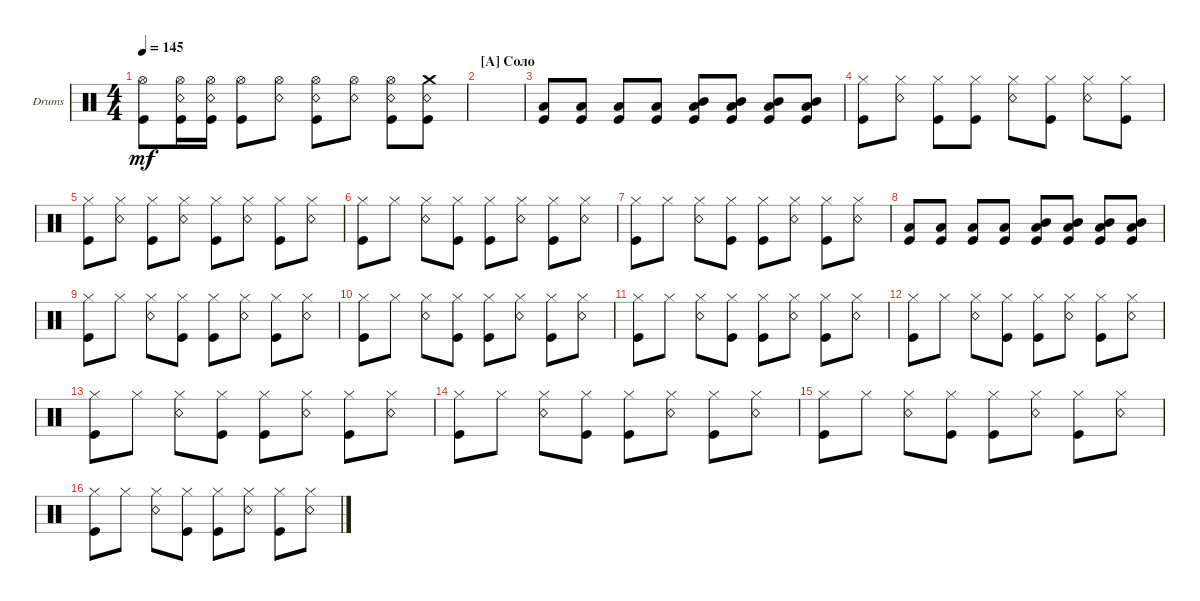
\defaultSystemsLayout 4
\bracketExtendMode groupsimilarinstruments
\firstSystemTrackNameOrientation horizontal
\otherSystemsTrackNameOrientation horizontal
\track ("Drumkit" "Drums") {instrument percussion}
\staff {score}
\articulation defaults
\ts (4 4)
\tempo 145
\clef neutral
\ks c
("Kick (hit)" "Hi-Hat (open)").8{dy mf} ("Snare (rim shot)" "Hi-Hat (open)" "Kick (hit)").16 ("Snare (rim shot)" "Hi-Hat (open)" "Kick (hit)").16 ("Kick (hit)" "Hi-Hat (open)").8 ("Snare (rim shot)" "Hi-Hat (open)").8 ("Kick (hit)" "Snare (rim shot)" "Hi-Hat (open)").8 ("Snare (rim shot)" "Hi-Hat (open)").8 ("Kick (hit)" "Snare (rim shot)" "Hi-Hat (open)").8 ("Snare (rim shot)" "Crash medium (hit)" "Kick (hit)").8 |
\section ("A" "Соло")
|
("Kick (hit)" "Low Tom (hit)").8 ("Kick (hit)" "Low Tom (hit)").8 ("Kick (hit)" "Low Tom (hit)").8 ("Kick (hit)" "Low Tom (hit)").8 ("Kick (hit)" "Low Tom (hit)" "Mid Tom (hit)").8 ("Kick (hit)" "Low Tom (hit)" "Mid Tom (hit)").8 ("Kick (hit)" "Low Tom (hit)" "Mid Tom (hit)").8 ("Kick (hit)" "Low Tom (hit)" "Mid Tom (hit)").8 |
("Kick (hit)" "Hi-Hat (closed)").8 ("Snare (rim shot)" "Hi-Hat (closed)").8 ("Kick (hit)" "Hi-Hat (closed)").8 ("Kick (hit)" "Hi-Hat (closed)").8 ("Snare (rim shot)" "Hi-Hat (closed)").8 ("Kick (hit)" "Hi-Hat (closed)").8 ("Snare (rim shot)" "Hi-Hat (closed)").8 ("Kick (hit)" "Hi-Hat (closed)").8 |
("Kick (hit)" "Hi-Hat (closed)").8 ("Snare (rim shot)" "Hi-Hat (closed)").8 ("Kick (hit)" "Hi-Hat (closed)").8 ("Snare (rim shot)" "Hi-Hat (closed)").8 ("Kick (hit)" "Hi-Hat (closed)").8 ("Snare (rim shot)" "Hi-Hat (closed)").8 ("Kick (hit)" "Hi-Hat (closed)").8 ("Snare (rim shot)" "Hi-Hat (closed)").8 |
("Kick (hit)" "Hi-Hat (closed)").8 "Hi-Hat (closed)".8 ("Snare (rim shot)" "Hi-Hat (closed)").8 ("Kick (hit)" "Hi-Hat (closed)").8 ("Kick (hit)" "Hi-Hat (closed)").8 ("Snare (rim shot)" "Hi-Hat (closed)").8 ("Kick (hit)" "Hi-Hat (closed)").8 ("Snare (rim shot)" "Hi-Hat (closed)").8 |
("Kick (hit)" "Hi-Hat (closed)").8 "Hi-Hat (closed)".8 ("Snare (rim shot)" "Hi-Hat (closed)").8 ("Kick (hit)" "Hi-Hat (closed)").8 ("Kick (hit)" "Hi-Hat (closed)").8 ("Snare (rim shot)" "Hi-Hat (closed)").8 ("Kick (hit)" "Hi-Hat (closed)").8 ("Snare (rim shot)" "Hi-Hat (closed)").8 |
("Kick (hit)" "Low Tom (hit)").8 ("Kick (hit)" "Low Tom (hit)").8 ("Kick (hit)" "Low Tom (hit)").8 ("Kick (hit)" "Low Tom (hit)").8 ("Kick (hit)" "Low Tom (hit)" "Mid Tom (hit)").8 ("Kick (hit)" "Low Tom (hit)" "Mid Tom (hit)").8 ("Kick (hit)" "Low Tom (hit)" "Mid Tom (hit)").8 ("Kick (hit)" "Low Tom (hit)" "Mid Tom (hit)").8 |
("Kick (hit)" "Hi-Hat (closed)").8 "Hi-Hat (closed)".8 ("Snare (rim shot)" "Hi-Hat (closed)").8 ("Kick (hit)" "Hi-Hat (closed)").8 ("Kick (hit)" "Hi-Hat (closed)").8 ("Snare (rim shot)" "Hi-Hat (closed)").8 ("Kick (hit)" "Hi-Hat (closed)").8 ("Snare (rim shot)" "Hi-Hat (closed)").8 |
("Kick (hit)" "Hi-Hat (closed)").8 "Hi-Hat (closed)".8 ("Snare (rim shot)" "Hi-Hat (closed)").8 ("Kick (hit)" "Hi-Hat (closed)").8 ("Kick (hit)" "Hi-Hat (closed)").8 ("Snare (rim shot)" "Hi-Hat (closed)").8 ("Kick (hit)" "Hi-Hat (closed)").8 ("Snare (rim shot)" "Hi-Hat (closed)").8 |
("Kick (hit)" "Hi-Hat (closed)").8 "Hi-Hat (closed)".8 ("Snare (rim shot)" "Hi-Hat (closed)").8 ("Kick (hit)" "Hi-Hat (closed)").8 ("Kick (hit)" "Hi-Hat (closed)").8 ("Snare (rim shot)" "Hi-Hat (closed)").8 ("Kick (hit)" "Hi-Hat (closed)").8 ("Snare (rim shot)" "Hi-Hat (closed)").8 |
("Kick (hit)" "Hi-Hat (closed)").8 "Hi-Hat (closed)".8 ("Snare (rim shot)" "Hi-Hat (closed)").8 ("Kick (hit)" "Hi-Hat (closed)").8 ("Kick (hit)" "Hi-Hat (closed)").8 ("Snare (rim shot)" "Hi-Hat (closed)").8 ("Kick (hit)" "Hi-Hat (closed)").8 ("Snare (rim shot)" "Hi-Hat (closed)").8 |
("Kick (hit)" "Hi-Hat (closed)").8 "Hi-Hat (closed)".8 ("Snare (rim shot)" "Hi-Hat (closed)").8 ("Kick (hit)" "Hi-Hat (closed)").8 ("Kick (hit)" "Hi-Hat (closed)").8 ("Snare (rim shot)" "Hi-Hat (closed)").8 ("Kick (hit)" "Hi-Hat (closed)").8 ("Snare (rim shot)" "Hi-Hat (closed)").8 |
("Kick (hit)" "Hi-Hat (closed)").8 "Hi-Hat (closed)".8 ("Snare (rim shot)" "Hi-Hat (closed)").8 ("Kick (hit)" "Hi-Hat (closed)").8 ("Kick (hit)" "Hi-Hat (closed)").8 ("Snare (rim shot)" "Hi-Hat (closed)").8 ("Kick (hit)" "Hi-Hat (closed)").8 ("Snare (rim shot)" "Hi-Hat (closed)").8 |
("Kick (hit)" "Hi-Hat (closed)").8 "Hi-Hat (closed)".8 ("Snare (rim shot)" "Hi-Hat (closed)").8 ("Kick (hit)" "Hi-Hat (closed)").8 ("Kick (hit)" "Hi-Hat (closed)").8 ("Snare (rim shot)" "Hi-Hat (closed)").8 ("Kick (hit)" "Hi-Hat (closed)").8 ("Snare (rim shot)" "Hi-Hat (closed)").8 |
("Kick (hit)" "Hi-Hat (closed)").8 "Hi-Hat (closed)".8 ("Snare (rim shot)" "Hi-Hat (closed)").8 ("Kick (hit)" "Hi-Hat (closed)").8 ("Kick (hit)" "Hi-Hat (closed)").8 ("Snare (rim shot)" "Hi-Hat (closed)").8 ("Kick (hit)" "Hi-Hat (closed)").8 ("Snare (rim shot)" "Hi-Hat (closed)").8
